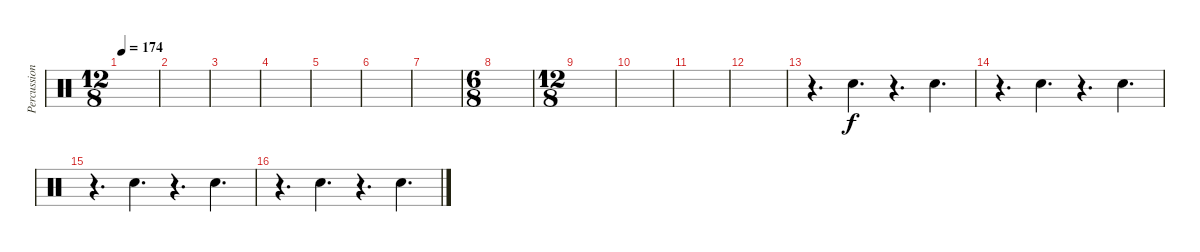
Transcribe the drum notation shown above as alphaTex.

\track ("Percussion" "Percussion") {instrument percussion}
\staff {score}
\articulation defaults
\ts (12 8)
\tempo 174
\clef neutral
\ks c
|
|
|
|
|
|
|
\ts (6 8)
|
\ts (12 8)
|
|
|
|
r.4{d} "Hand Clap (hit)".4{d} r.4{d} "Hand Clap (hit)".4{d} |
r.4{d} "Hand Clap (hit)".4{d} r.4{d} "Hand Clap (hit)".4{d} |
r.4{d} "Hand Clap (hit)".4{d} r.4{d} "Hand Clap (hit)".4{d} |
r.4{d} "Hand Clap (hit)".4{d} r.4{d} "Hand Clap (hit)".4{d}
